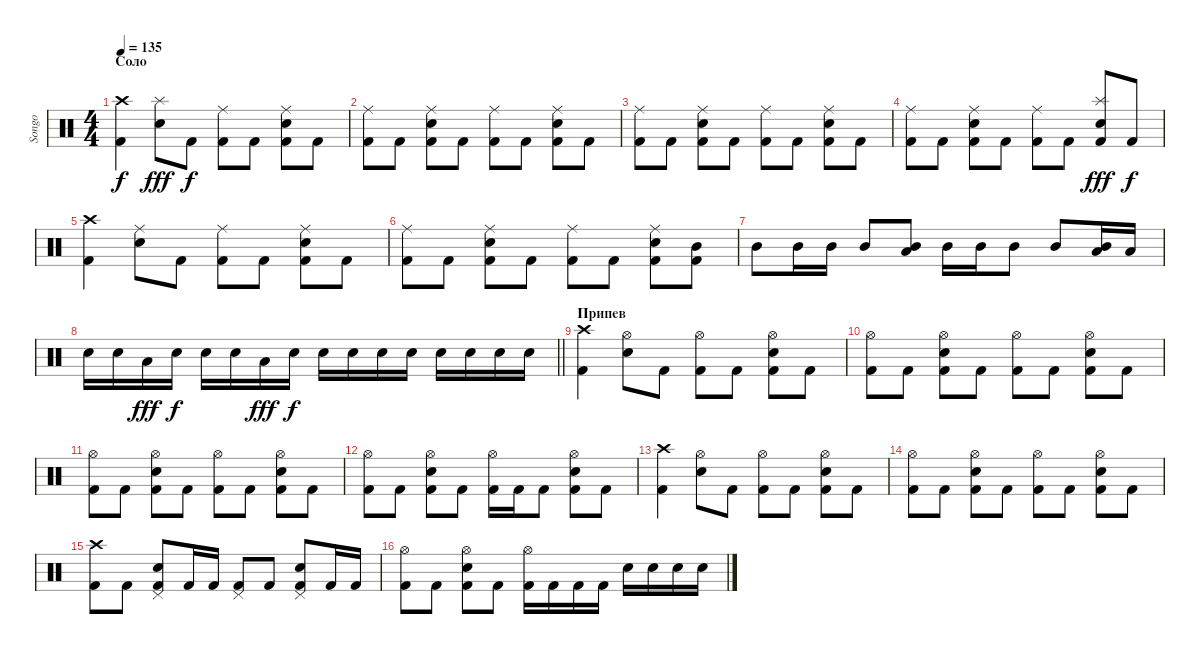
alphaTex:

\track ("Songo" "Songo") {instrument percussion}
\staff {score}
\articulation defaults
\ts (4 4)
\section ("" "Соло")
\tempo 135
\clef neutral
\ks c
("Crash high (hit)" "Kick (hit) 2").4{dy f} ("Splash (hit)" "Snare (hit) 2").8{dy fff} "Kick (hit) 2".8{dy f} ("Ride (middle)" "Kick (hit) 2").8 "Kick (hit) 2".8 ("Ride (middle)" "Snare (hit) 2" "Kick (hit) 2").8 "Kick (hit) 2".8 |
("Ride (middle)" "Kick (hit) 2").8 "Kick (hit) 2".8 ("Ride (middle)" "Snare (hit) 2" "Kick (hit) 2").8 "Kick (hit) 2".8 ("Ride (middle)" "Kick (hit) 2").8 "Kick (hit) 2".8 ("Ride (middle)" "Snare (hit) 2" "Kick (hit) 2").8 "Kick (hit) 2".8 |
("Ride (middle)" "Kick (hit) 2").8 "Kick (hit) 2".8 ("Ride (middle)" "Snare (hit) 2" "Kick (hit) 2").8 "Kick (hit) 2".8 ("Ride (middle)" "Kick (hit) 2").8 "Kick (hit) 2".8 ("Ride (middle)" "Snare (hit) 2" "Kick (hit) 2").8 "Kick (hit) 2".8 |
("Ride (middle)" "Kick (hit) 2").8 "Kick (hit) 2".8 ("Ride (middle)" "Snare (hit) 2" "Kick (hit) 2").8 "Kick (hit) 2".8 ("Ride (middle)" "Kick (hit) 2").8 "Kick (hit) 2".8 ("Splash (hit)" "Snare (hit) 2" "Kick (hit) 2").8{dy fff} "Kick (hit) 2".8{dy f} |
("Crash high (hit)" "Kick (hit) 2").4 ("Ride (middle)" "Snare (hit) 2").8 "Kick (hit) 2".8 ("Ride (middle)" "Kick (hit) 2").8 "Kick (hit) 2".8 ("Ride (middle)" "Snare (hit) 2" "Kick (hit) 2").8 "Kick (hit) 2".8 |
("Ride (middle)" "Kick (hit) 2").8 "Kick (hit) 2".8 ("Ride (middle)" "Snare (hit) 2" "Kick (hit) 2").8 "Kick (hit) 2".8 ("Ride (middle)" "Kick (hit) 2").8 "Kick (hit) 2".8 ("Ride (middle)" "Snare (hit) 2" "Kick (hit) 2").8 ("Mid Tom (hit)" "Kick (hit) 2").8 |
"Mid Tom (hit)".8 "Mid Tom (hit)".16 "Mid Tom (hit)".16 "Mid Tom (hit)".8 ("Mid Tom (hit)" "Low Tom (hit)").8 "Mid Tom (hit)".16 "Mid Tom (hit)".16 "Mid Tom (hit)".8 "Mid Tom (hit)".8 ("Mid Tom (hit)" "Low Tom (hit)").16 "Low Tom (hit)".16 |
\barLineRight lightlight "Snare (hit) 2".16 "Snare (hit) 2".16 "Low Tom (hit)".16{dy fff} "Snare (hit) 2".16{dy f} "Snare (hit) 2".16 "Snare (hit) 2".16 "Low Tom (hit)".16{dy fff} "Snare (hit) 2".16{dy f} "Snare (hit) 2".16 "Snare (hit) 2".16 "Snare (hit) 2".16 "Snare (hit) 2".16 "Snare (hit) 2".16 "Snare (hit) 2".16 "Snare (hit) 2".16 "Snare (hit) 2".16
|
\section ("" "Припев")
("Crash high (hit)" "Kick (hit) 2").4 ("Hi-Hat (open)" "Snare (hit) 2").8 "Kick (hit) 2".8 ("Hi-Hat (open)" "Kick (hit) 2").8 "Kick (hit) 2".8 ("Hi-Hat (open)" "Snare (hit) 2" "Kick (hit) 2").8 "Kick (hit) 2".8 |
("Hi-Hat (open)" "Kick (hit) 2").8 "Kick (hit) 2".8 ("Hi-Hat (open)" "Snare (hit) 2" "Kick (hit) 2").8 "Kick (hit) 2".8 ("Hi-Hat (open)" "Kick (hit) 2").8 "Kick (hit) 2".8 ("Hi-Hat (open)" "Snare (hit) 2" "Kick (hit) 2").8 "Kick (hit) 2".8 |
("Hi-Hat (open)" "Kick (hit) 2").8 "Kick (hit) 2".8 ("Hi-Hat (open)" "Snare (hit) 2" "Kick (hit) 2").8 "Kick (hit) 2".8 ("Hi-Hat (open)" "Kick (hit) 2").8 "Kick (hit) 2".8 ("Hi-Hat (open)" "Snare (hit) 2" "Kick (hit) 2").8 "Kick (hit) 2".8 |
("Hi-Hat (open)" "Kick (hit) 2").8 "Kick (hit) 2".8 ("Hi-Hat (open)" "Snare (hit) 2" "Kick (hit) 2").8 "Kick (hit) 2".8 ("Hi-Hat (open)" "Kick (hit) 2").16 "Kick (hit) 2".16 "Kick (hit) 2".8 ("Hi-Hat (open)" "Snare (hit) 2" "Kick (hit) 2").8 "Kick (hit) 2".8 |
("Crash high (hit)" "Kick (hit) 2").4 ("Hi-Hat (open)" "Snare (hit) 2").8 "Kick (hit) 2".8 ("Hi-Hat (open)" "Kick (hit) 2").8 "Kick (hit) 2".8 ("Hi-Hat (open)" "Snare (hit) 2" "Kick (hit) 2").8 "Kick (hit) 2".8 |
("Hi-Hat (open)" "Kick (hit) 2").8 "Kick (hit) 2".8 ("Hi-Hat (open)" "Snare (hit) 2" "Kick (hit) 2").8 "Kick (hit) 2".8 ("Hi-Hat (open)" "Kick (hit) 2").8 "Kick (hit) 2".8 ("Hi-Hat (open)" "Snare (hit) 2" "Kick (hit) 2").8 "Kick (hit) 2".8 |
("Crash high (hit)" "Kick (hit) 2").8 "Kick (hit) 2".8 ("Pedal Hi-Hat (hit)" "Snare (hit) 2" "Kick (hit) 2").8 "Kick (hit) 2".16 "Kick (hit) 2".16 ("Pedal Hi-Hat (hit)" "Kick (hit) 2").8 "Kick (hit) 2".8 ("Pedal Hi-Hat (hit)" "Snare (hit) 2" "Kick (hit) 2").8 "Kick (hit) 2".16 "Kick (hit) 2".16 |
("Hi-Hat (open)" "Kick (hit) 2").8 "Kick (hit) 2".8 ("Hi-Hat (open)" "Snare (hit) 2" "Kick (hit) 2").8 "Kick (hit) 2".8 ("Hi-Hat (open)" "Kick (hit) 2").16 "Kick (hit) 2".16 "Kick (hit) 2".16 "Kick (hit) 2".16 "Snare (hit) 2".16 "Snare (hit) 2".16 "Snare (hit) 2".16 "Snare (hit) 2".16
